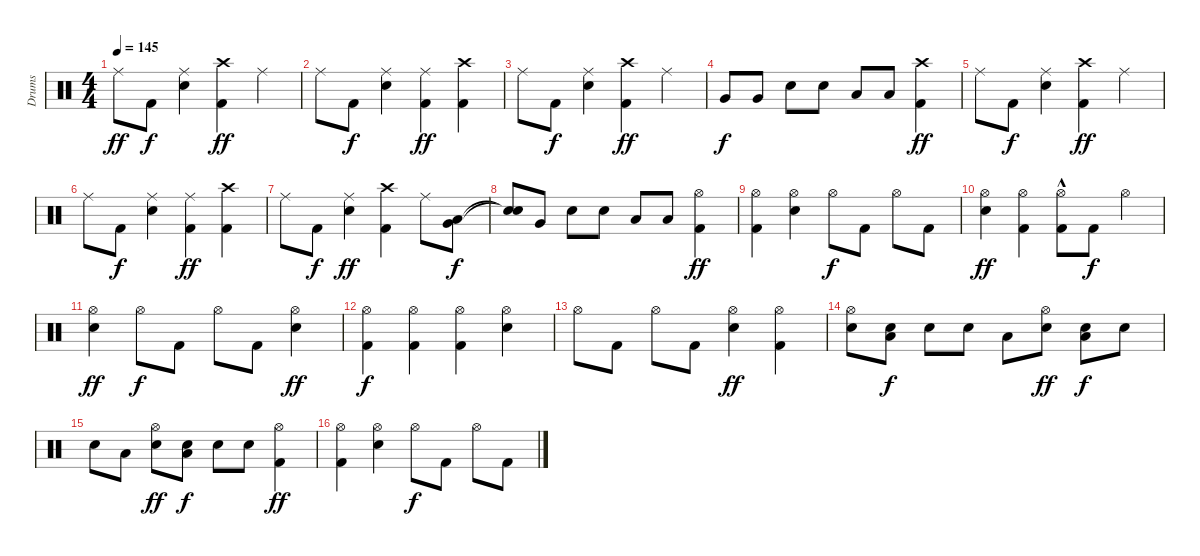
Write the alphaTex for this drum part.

\track ("Drums" "Drums") {instrument percussion}
\staff {score}
\articulation defaults
\ts (4 4)
\tempo 145
\clef neutral
\ks c "Ride (middle)".8{dy ff} "Kick (hit) 2".8{dy f}
("Ride (middle)" "Electric Snare (hit)").4 ("Crash high (hit)" "Kick (hit) 2").4{dy ff} "Ride (middle)".4 |
"Ride (middle)".8 "Kick (hit) 2".8{dy f} ("Ride (middle)" "Electric Snare (hit)").4 ("Ride (middle)" "Kick (hit) 2").4{dy ff} ("Crash high (hit)" "Kick (hit) 2").4 |
"Ride (middle)".8 "Kick (hit) 2".8{dy f} ("Ride (middle)" "Electric Snare (hit)").4 ("Crash high (hit)" "Kick (hit) 2").4{dy ff} "Ride (middle)".4 |
"Very Low Tom (hit)".8{dy f} "Very Low Tom (hit)".8 "Electric Snare (hit)".8 "Electric Snare (hit)".8 "Low Tom (hit)".8 "Low Tom (hit)".8 ("Crash high (hit)" "Kick (hit) 2").4{dy ff} |
"Ride (middle)".8 "Kick (hit) 2".8{dy f} ("Ride (middle)" "Electric Snare (hit)").4 ("Crash high (hit)" "Kick (hit) 2").4{dy ff} "Ride (middle)".4 |
"Ride (middle)".8 "Kick (hit) 2".8{dy f} ("Ride (middle)" "Electric Snare (hit)").4 ("Ride (middle)" "Kick (hit) 2").4{dy ff} ("Crash high (hit)" "Kick (hit) 2").4 |
"Ride (middle)".8 "Kick (hit) 2".8{dy f} ("Ride (middle)" "Electric Snare (hit)").4{dy ff} ("Crash high (hit)" "Kick (hit) 2").4 "Ride (middle)".8 ("Low Tom (hit)" "Very Low Tom (hit)").8{dy f} |
("Snare (hit)"{t} "Snare (hit)"{t}).8 "Very Low Tom (hit)".8 "Electric Snare (hit)".8 "Electric Snare (hit)".8 "Low Tom (hit)".8 "Low Tom (hit)".8 ("Hi-Hat (open)" "Kick (hit) 2").4{dy ff} |
("Hi-Hat (open)" "Kick (hit) 2").4 ("Hi-Hat (open)" "Electric Snare (hit)").4 "Hi-Hat (open)".8{dy f} "Kick (hit) 2".8 "Hi-Hat (open)".8 "Kick (hit) 2".8 |
("Hi-Hat (open)" "Electric Snare (hit)").4{dy ff} ("Hi-Hat (open)" "Kick (hit) 2").4 ("Hi-Hat (open)"{hac} "Kick (hit) 2").8 "Kick (hit) 2".8{dy f} "Hi-Hat (open)".4 |
("Hi-Hat (open)" "Electric Snare (hit)").4{dy ff} "Hi-Hat (open)".8{dy f} "Kick (hit) 2".8 "Hi-Hat (open)".8 "Kick (hit) 2".8 ("Hi-Hat (open)" "Electric Snare (hit)").4{dy ff} |
("Hi-Hat (open)" "Kick (hit) 2").4{dy f} ("Hi-Hat (open)" "Kick (hit) 2").4 ("Hi-Hat (open)" "Kick (hit) 2").4 ("Hi-Hat (open)" "Electric Snare (hit)").4 |
"Hi-Hat (open)".8 "Kick (hit) 2".8 "Hi-Hat (open)".8 "Kick (hit) 2".8 ("Hi-Hat (open)" "Electric Snare (hit)").4{dy ff} ("Hi-Hat (open)" "Kick (hit) 2").4 |
("Hi-Hat (open)" "Electric Snare (hit)").8 ("Low Tom (hit)" "Electric Snare (hit)").8{dy f} "Electric Snare (hit)".8 "Electric Snare (hit)".8 "Low Floor Tom (hit)".8 ("Hi-Hat (open)" "Electric Snare (hit)").8{dy ff} ("Low Tom (hit)" "Electric Snare (hit)").8{dy f} "Electric Snare (hit)".8 |
"Electric Snare (hit)".8 "Low Floor Tom (hit)".8 ("Hi-Hat (open)" "Electric Snare (hit)").8{dy ff} ("Low Tom (hit)" "Electric Snare (hit)").8{dy f} "Electric Snare (hit)".8 "Electric Snare (hit)".8 ("Hi-Hat (open)" "Kick (hit) 2").4{dy ff} |
("Hi-Hat (open)" "Kick (hit) 2").4 ("Hi-Hat (open)" "Electric Snare (hit)").4 "Hi-Hat (open)".8{dy f} "Kick (hit) 2".8 "Hi-Hat (open)".8 "Kick (hit) 2".8
